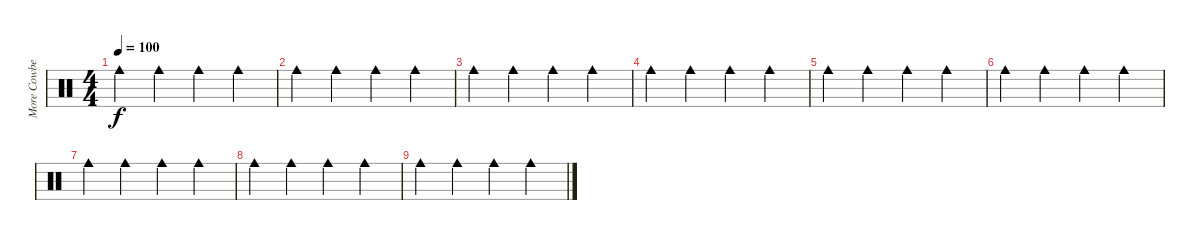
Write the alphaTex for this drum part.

\track ("More Cowbell!!" "More Cowbe") {instrument percussion}
\staff {score}
\articulation defaults
\ts (4 4)
\tempo 100
\clef neutral
\ks c "Cowbell medium (hit)".4{dy f} "Cowbell medium (hit)".4 "Cowbell medium (hit)".4 "Cowbell medium (hit)".4
|
"Cowbell medium (hit)".4 "Cowbell medium (hit)".4 "Cowbell medium (hit)".4 "Cowbell medium (hit)".4 |
"Cowbell medium (hit)".4 "Cowbell medium (hit)".4 "Cowbell medium (hit)".4 "Cowbell medium (hit)".4 |
"Cowbell medium (hit)".4 "Cowbell medium (hit)".4 "Cowbell medium (hit)".4 "Cowbell medium (hit)".4 |
"Cowbell medium (hit)".4 "Cowbell medium (hit)".4 "Cowbell medium (hit)".4 "Cowbell medium (hit)".4 |
"Cowbell medium (hit)".4 "Cowbell medium (hit)".4 "Cowbell medium (hit)".4 "Cowbell medium (hit)".4 |
"Cowbell medium (hit)".4 "Cowbell medium (hit)".4 "Cowbell medium (hit)".4 "Cowbell medium (hit)".4 |
"Cowbell medium (hit)".4 "Cowbell medium (hit)".4 "Cowbell medium (hit)".4 "Cowbell medium (hit)".4 |
"Cowbell medium (hit)".4 "Cowbell medium (hit)".4 "Cowbell medium (hit)".4 "Cowbell medium (hit)".4
